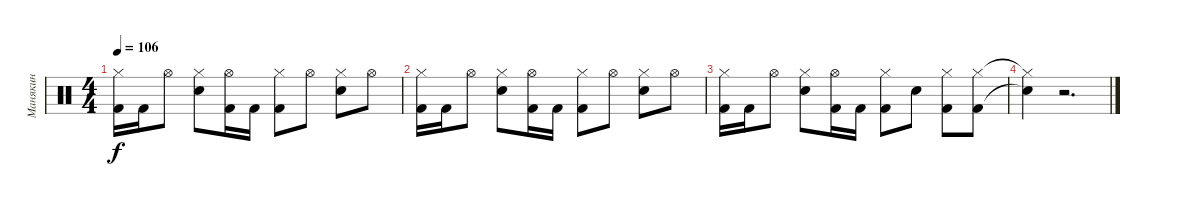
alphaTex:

\track ("Манякин" "Манякин") {instrument percussion}
\staff {score}
\articulation defaults
\ts (4 4)
\tempo 106
\clef neutral
\ks c
("Hi-Hat (closed)" "Kick (hit) 2").16{dy f} "Kick (hit) 2".16 "Hi-Hat (open)".8 ("Hi-Hat (closed)" "Electric Snare (hit)").8 ("Kick (hit) 2" "Hi-Hat (open)").16 "Kick (hit) 2".16 ("Hi-Hat (closed)" "Kick (hit) 2").8 "Hi-Hat (open)".8 ("Hi-Hat (closed)" "Electric Snare (hit)").8 "Hi-Hat (open)".8 |
("Hi-Hat (closed)" "Kick (hit) 2").16 "Kick (hit) 2".16 "Hi-Hat (open)".8 ("Hi-Hat (closed)" "Electric Snare (hit)").8 ("Kick (hit) 2" "Hi-Hat (open)").16 "Kick (hit) 2".16 ("Hi-Hat (closed)" "Kick (hit) 2").8 "Hi-Hat (open)".8 ("Hi-Hat (closed)" "Electric Snare (hit)").8 "Hi-Hat (open)".8 |
("Hi-Hat (closed)" "Kick (hit) 2").16 "Kick (hit) 2".16 "Hi-Hat (open)".8 ("Hi-Hat (closed)" "Electric Snare (hit)").8 ("Kick (hit) 2" "Hi-Hat (open)").16 "Kick (hit) 2".16 ("Hi-Hat (closed)" "Kick (hit) 2").8 "Electric Snare (hit)".8 ("Hi-Hat (closed)" "Kick (hit) 2").8 ("Hi-Hat (closed)" "Kick (hit) 2").8 |
("Hi-Hat (closed)"{t} "Electric Snare (hit)"{t}).4 r.2{d}
